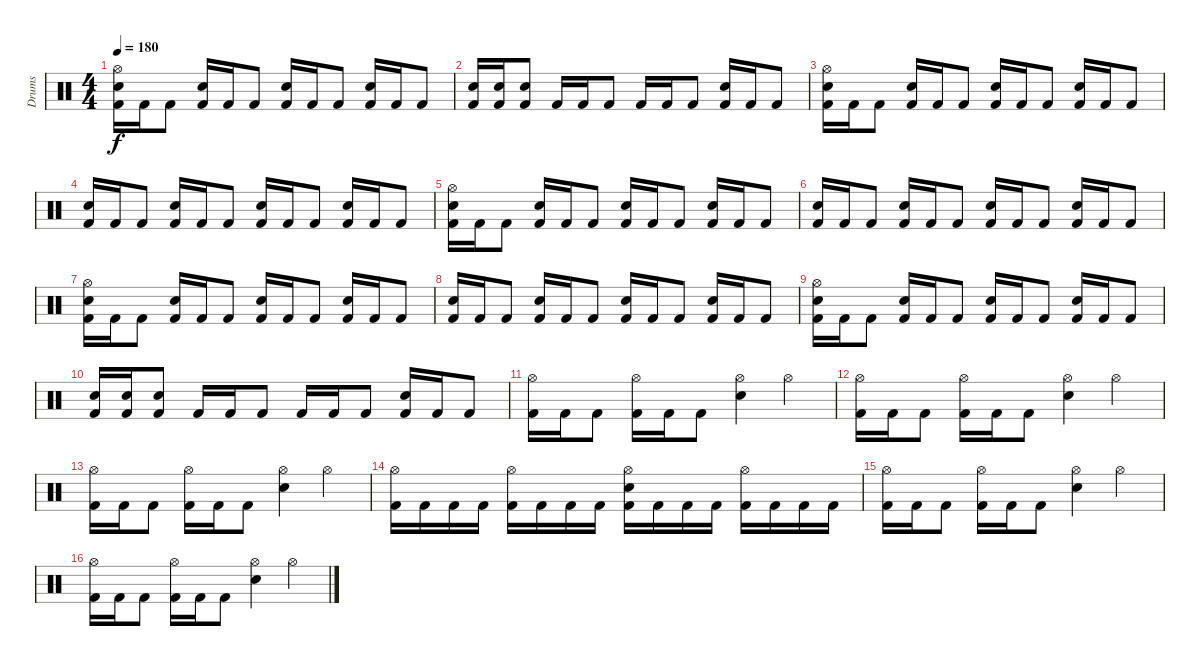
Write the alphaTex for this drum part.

\track ("Drums" "Drums") {instrument percussion}
\staff {score}
\articulation defaults
\ts (4 4)
\tempo 180
\clef neutral
\ks c
("Hi-Hat (open)" "Snare (hit) 2" "Kick (hit) 2").16{dy f} "Kick (hit) 2".16 "Kick (hit) 2".8 ("Snare (hit) 2" "Kick (hit) 2").16 "Kick (hit) 2".16 "Kick (hit) 2".8 ("Snare (hit) 2" "Kick (hit) 2").16 "Kick (hit) 2".16 "Kick (hit) 2".8 ("Snare (hit) 2" "Kick (hit) 2").16 "Kick (hit) 2".16 "Kick (hit) 2".8 |
("Snare (hit) 2" "Kick (hit) 2").16 ("Snare (hit) 2" "Kick (hit) 2").16 ("Snare (hit) 2" "Kick (hit) 2").8 "Kick (hit) 2".16 "Kick (hit) 2".16 "Kick (hit) 2".8 "Kick (hit) 2".16 "Kick (hit) 2".16 "Kick (hit) 2".8 ("Snare (hit) 2" "Kick (hit) 2").16 "Kick (hit) 2".16 "Kick (hit) 2".8 |
("Hi-Hat (open)" "Snare (hit) 2" "Kick (hit) 2").16 "Kick (hit) 2".16 "Kick (hit) 2".8 ("Snare (hit) 2" "Kick (hit) 2").16 "Kick (hit) 2".16 "Kick (hit) 2".8 ("Snare (hit) 2" "Kick (hit) 2").16 "Kick (hit) 2".16 "Kick (hit) 2".8 ("Snare (hit) 2" "Kick (hit) 2").16 "Kick (hit) 2".16 "Kick (hit) 2".8 |
("Snare (hit) 2" "Kick (hit) 2").16 "Kick (hit) 2".16 "Kick (hit) 2".8 ("Snare (hit) 2" "Kick (hit) 2").16 "Kick (hit) 2".16 "Kick (hit) 2".8 ("Snare (hit) 2" "Kick (hit) 2").16 "Kick (hit) 2".16 "Kick (hit) 2".8 ("Snare (hit) 2" "Kick (hit) 2").16 "Kick (hit) 2".16 "Kick (hit) 2".8 |
("Hi-Hat (open)" "Snare (hit) 2" "Kick (hit) 2").16 "Kick (hit) 2".16 "Kick (hit) 2".8 ("Snare (hit) 2" "Kick (hit) 2").16 "Kick (hit) 2".16 "Kick (hit) 2".8 ("Snare (hit) 2" "Kick (hit) 2").16 "Kick (hit) 2".16 "Kick (hit) 2".8 ("Snare (hit) 2" "Kick (hit) 2").16 "Kick (hit) 2".16 "Kick (hit) 2".8 |
("Snare (hit) 2" "Kick (hit) 2").16 "Kick (hit) 2".16 "Kick (hit) 2".8 ("Snare (hit) 2" "Kick (hit) 2").16 "Kick (hit) 2".16 "Kick (hit) 2".8 ("Snare (hit) 2" "Kick (hit) 2").16 "Kick (hit) 2".16 "Kick (hit) 2".8 ("Snare (hit) 2" "Kick (hit) 2").16 "Kick (hit) 2".16 "Kick (hit) 2".8 |
("Hi-Hat (open)" "Snare (hit) 2" "Kick (hit) 2").16 "Kick (hit) 2".16 "Kick (hit) 2".8 ("Snare (hit) 2" "Kick (hit) 2").16 "Kick (hit) 2".16 "Kick (hit) 2".8 ("Snare (hit) 2" "Kick (hit) 2").16 "Kick (hit) 2".16 "Kick (hit) 2".8 ("Snare (hit) 2" "Kick (hit) 2").16 "Kick (hit) 2".16 "Kick (hit) 2".8 |
("Snare (hit) 2" "Kick (hit) 2").16 "Kick (hit) 2".16 "Kick (hit) 2".8 ("Snare (hit) 2" "Kick (hit) 2").16 "Kick (hit) 2".16 "Kick (hit) 2".8 ("Snare (hit) 2" "Kick (hit) 2").16 "Kick (hit) 2".16 "Kick (hit) 2".8 ("Snare (hit) 2" "Kick (hit) 2").16 "Kick (hit) 2".16 "Kick (hit) 2".8 |
("Hi-Hat (open)" "Snare (hit) 2" "Kick (hit) 2").16 "Kick (hit) 2".16 "Kick (hit) 2".8 ("Snare (hit) 2" "Kick (hit) 2").16 "Kick (hit) 2".16 "Kick (hit) 2".8 ("Snare (hit) 2" "Kick (hit) 2").16 "Kick (hit) 2".16 "Kick (hit) 2".8 ("Snare (hit) 2" "Kick (hit) 2").16 "Kick (hit) 2".16 "Kick (hit) 2".8 |
("Snare (hit) 2" "Kick (hit) 2").16 ("Snare (hit) 2" "Kick (hit) 2").16 ("Snare (hit) 2" "Kick (hit) 2").8 "Kick (hit) 2".16 "Kick (hit) 2".16 "Kick (hit) 2".8 "Kick (hit) 2".16 "Kick (hit) 2".16 "Kick (hit) 2".8 ("Snare (hit) 2" "Kick (hit) 2").16 "Kick (hit) 2".16 "Kick (hit) 2".8 |
("Hi-Hat (open)" "Kick (hit) 2").16 "Kick (hit) 2".16 "Kick (hit) 2".8 ("Hi-Hat (open)" "Kick (hit) 2").16 "Kick (hit) 2".16 "Kick (hit) 2".8 ("Hi-Hat (open)" "Snare (hit) 2").4 "Hi-Hat (open)".4 |
("Hi-Hat (open)" "Kick (hit) 2").16 "Kick (hit) 2".16 "Kick (hit) 2".8 ("Hi-Hat (open)" "Kick (hit) 2").16 "Kick (hit) 2".16 "Kick (hit) 2".8 ("Hi-Hat (open)" "Snare (hit) 2").4 "Hi-Hat (open)".4 |
("Hi-Hat (open)" "Kick (hit) 2").16 "Kick (hit) 2".16 "Kick (hit) 2".8 ("Hi-Hat (open)" "Kick (hit) 2").16 "Kick (hit) 2".16 "Kick (hit) 2".8 ("Hi-Hat (open)" "Snare (hit) 2").4 "Hi-Hat (open)".4 |
("Hi-Hat (open)" "Kick (hit) 2").16 "Kick (hit) 2".16 "Kick (hit) 2".16 "Kick (hit) 2".16 ("Hi-Hat (open)" "Kick (hit) 2").16 "Kick (hit) 2".16 "Kick (hit) 2".16 "Kick (hit) 2".16 ("Hi-Hat (open)" "Snare (hit) 2" "Kick (hit) 2").16 "Kick (hit) 2".16 "Kick (hit) 2".16 "Kick (hit) 2".16 ("Hi-Hat (open)" "Kick (hit) 2").16 "Kick (hit) 2".16 "Kick (hit) 2".16 "Kick (hit) 2".16 |
("Hi-Hat (open)" "Kick (hit) 2").16 "Kick (hit) 2".16 "Kick (hit) 2".8 ("Hi-Hat (open)" "Kick (hit) 2").16 "Kick (hit) 2".16 "Kick (hit) 2".8 ("Hi-Hat (open)" "Snare (hit) 2").4 "Hi-Hat (open)".4 |
("Hi-Hat (open)" "Kick (hit) 2").16 "Kick (hit) 2".16 "Kick (hit) 2".8 ("Hi-Hat (open)" "Kick (hit) 2").16 "Kick (hit) 2".16 "Kick (hit) 2".8 ("Hi-Hat (open)" "Snare (hit) 2").4 "Hi-Hat (open)".4
